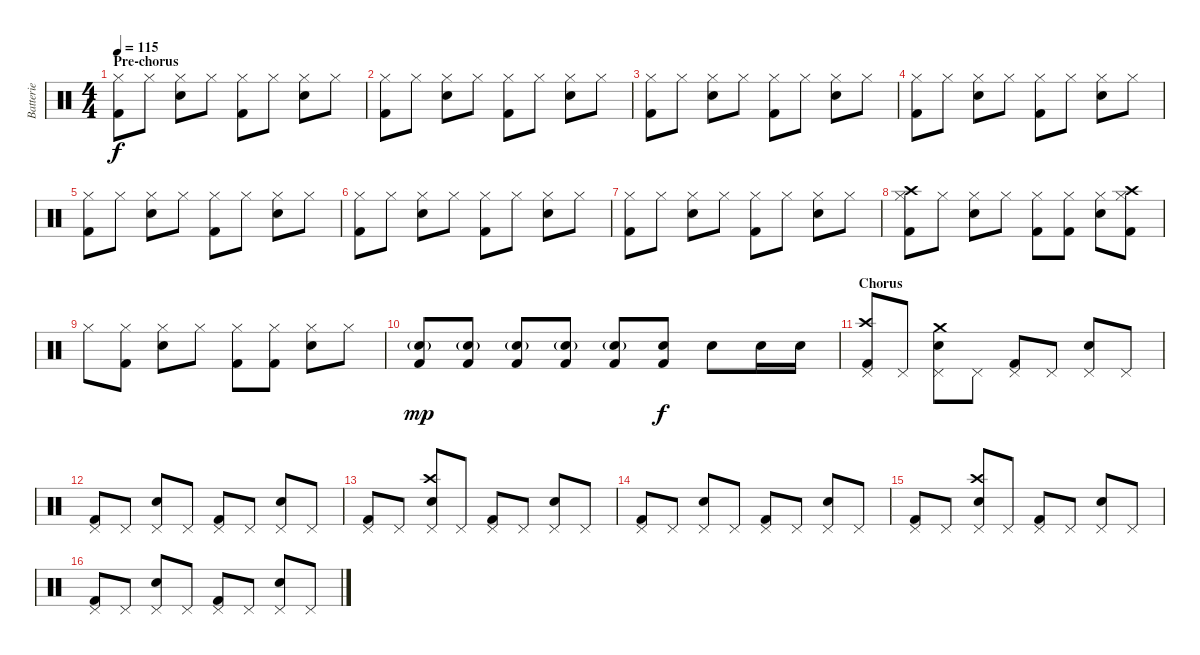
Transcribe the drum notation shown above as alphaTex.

\track ("Batterie" "Batterie") {instrument percussion}
\staff {score}
\articulation defaults
\ts (4 4)
\section ("" "Pre-chorus")
\tempo 115
\clef neutral
\ks c
("Hi-Hat (closed)" "Kick (hit) 2").8{dy f} "Hi-Hat (closed)".8 ("Hi-Hat (closed)" "Snare (hit) 2").8 "Hi-Hat (closed)".8 ("Hi-Hat (closed)" "Kick (hit) 2").8 "Hi-Hat (closed)".8 ("Hi-Hat (closed)" "Snare (hit) 2").8 "Hi-Hat (closed)".8 |
("Hi-Hat (closed)" "Kick (hit) 2").8 "Hi-Hat (closed)".8 ("Hi-Hat (closed)" "Snare (hit) 2").8 "Hi-Hat (closed)".8 ("Hi-Hat (closed)" "Kick (hit) 2").8 "Hi-Hat (closed)".8 ("Hi-Hat (closed)" "Snare (hit) 2").8 "Hi-Hat (closed)".8 |
("Hi-Hat (closed)" "Kick (hit) 2").8 "Hi-Hat (closed)".8 ("Hi-Hat (closed)" "Snare (hit) 2").8 "Hi-Hat (closed)".8 ("Hi-Hat (closed)" "Kick (hit) 2").8 "Hi-Hat (closed)".8 ("Hi-Hat (closed)" "Snare (hit) 2").8 "Hi-Hat (closed)".8 |
("Hi-Hat (closed)" "Kick (hit) 2").8 "Hi-Hat (closed)".8 ("Hi-Hat (closed)" "Snare (hit) 2").8 "Hi-Hat (closed)".8 ("Hi-Hat (closed)" "Kick (hit) 2").8 "Hi-Hat (closed)".8 ("Hi-Hat (closed)" "Snare (hit) 2").8 "Hi-Hat (closed)".8 |
("Hi-Hat (closed)" "Kick (hit) 2").8 "Hi-Hat (closed)".8 ("Hi-Hat (closed)" "Snare (hit) 2").8 "Hi-Hat (closed)".8 ("Hi-Hat (closed)" "Kick (hit) 2").8 "Hi-Hat (closed)".8 ("Hi-Hat (closed)" "Snare (hit) 2").8 "Hi-Hat (closed)".8 |
("Hi-Hat (closed)" "Kick (hit) 2").8 "Hi-Hat (closed)".8 ("Hi-Hat (closed)" "Snare (hit) 2").8 "Hi-Hat (closed)".8 ("Hi-Hat (closed)" "Kick (hit) 2").8 "Hi-Hat (closed)".8 ("Hi-Hat (closed)" "Snare (hit) 2").8 "Hi-Hat (closed)".8 |
("Hi-Hat (closed)" "Kick (hit) 2").8 "Hi-Hat (closed)".8 ("Hi-Hat (closed)" "Snare (hit) 2").8 "Hi-Hat (closed)".8 ("Hi-Hat (closed)" "Kick (hit) 2").8 "Hi-Hat (closed)".8 ("Hi-Hat (closed)" "Snare (hit) 2").8 "Hi-Hat (closed)".8 |
("Hi-Hat (closed)" "Crash high (hit)" "Kick (hit) 2").8 "Hi-Hat (closed)".8 ("Hi-Hat (closed)" "Snare (hit) 2").8 "Hi-Hat (closed)".8 ("Hi-Hat (closed)" "Kick (hit) 2").8 ("Hi-Hat (closed)" "Kick (hit) 2").8 ("Hi-Hat (closed)" "Snare (hit) 2").8 ("Hi-Hat (closed)" "Crash high (hit)" "Kick (hit) 2").8 |
"Hi-Hat (closed)".8 ("Hi-Hat (closed)" "Kick (hit) 2").8 ("Hi-Hat (closed)" "Snare (hit) 2").8 "Hi-Hat (closed)".8 ("Hi-Hat (closed)" "Kick (hit) 2").8 ("Hi-Hat (closed)" "Kick (hit) 2").8 ("Hi-Hat (closed)" "Snare (hit) 2").8 "Hi-Hat (closed)".8 |
("Snare (hit) 2"{g} "Kick (hit) 2").8{dy mp} ("Snare (hit) 2"{g} "Kick (hit) 2").8 ("Snare (hit) 2"{g} "Kick (hit) 2").8 ("Snare (hit) 2"{g} "Kick (hit) 2").8 ("Snare (hit) 2"{g} "Kick (hit) 2").8 ("Snare (hit) 2" "Kick (hit) 2").8{dy f} "Snare (hit) 2".8 "Snare (hit) 2".16 "Snare (hit) 2".16 |
\section ("" "Chorus")
("Pedal Hi-Hat (hit)" "Crash high (hit)" "Kick (hit) 2").8 "Pedal Hi-Hat (hit)".8 ("Pedal Hi-Hat (hit)" "Crash medium (hit)" "Snare (hit) 2").8 "Pedal Hi-Hat (hit)".8 ("Pedal Hi-Hat (hit)" "Kick (hit) 2").8 "Pedal Hi-Hat (hit)".8 ("Pedal Hi-Hat (hit)" "Snare (hit) 2").8 "Pedal Hi-Hat (hit)".8 |
("Pedal Hi-Hat (hit)" "Kick (hit) 2").8 "Pedal Hi-Hat (hit)".8 ("Pedal Hi-Hat (hit)" "Snare (hit) 2").8 "Pedal Hi-Hat (hit)".8 ("Pedal Hi-Hat (hit)" "Kick (hit) 2").8 "Pedal Hi-Hat (hit)".8 ("Pedal Hi-Hat (hit)" "Snare (hit) 2").8 "Pedal Hi-Hat (hit)".8 |
("Pedal Hi-Hat (hit)" "Kick (hit) 2").8 "Pedal Hi-Hat (hit)".8 ("Pedal Hi-Hat (hit)" "Crash high (hit)" "Snare (hit) 2").8 "Pedal Hi-Hat (hit)".8 ("Pedal Hi-Hat (hit)" "Kick (hit) 2").8 "Pedal Hi-Hat (hit)".8 ("Pedal Hi-Hat (hit)" "Snare (hit) 2").8 "Pedal Hi-Hat (hit)".8 |
("Pedal Hi-Hat (hit)" "Kick (hit) 2").8 "Pedal Hi-Hat (hit)".8 ("Pedal Hi-Hat (hit)" "Snare (hit) 2").8 "Pedal Hi-Hat (hit)".8 ("Pedal Hi-Hat (hit)" "Kick (hit) 2").8 "Pedal Hi-Hat (hit)".8 ("Pedal Hi-Hat (hit)" "Snare (hit) 2").8 "Pedal Hi-Hat (hit)".8 |
("Pedal Hi-Hat (hit)" "Kick (hit) 2").8 "Pedal Hi-Hat (hit)".8 ("Pedal Hi-Hat (hit)" "Crash high (hit)" "Snare (hit) 2").8 "Pedal Hi-Hat (hit)".8 ("Pedal Hi-Hat (hit)" "Kick (hit) 2").8 "Pedal Hi-Hat (hit)".8 ("Pedal Hi-Hat (hit)" "Snare (hit) 2").8 "Pedal Hi-Hat (hit)".8 |
("Pedal Hi-Hat (hit)" "Kick (hit) 2").8 "Pedal Hi-Hat (hit)".8 ("Pedal Hi-Hat (hit)" "Snare (hit) 2").8 "Pedal Hi-Hat (hit)".8 ("Pedal Hi-Hat (hit)" "Kick (hit) 2").8 "Pedal Hi-Hat (hit)".8 ("Pedal Hi-Hat (hit)" "Snare (hit) 2").8 "Pedal Hi-Hat (hit)".8
